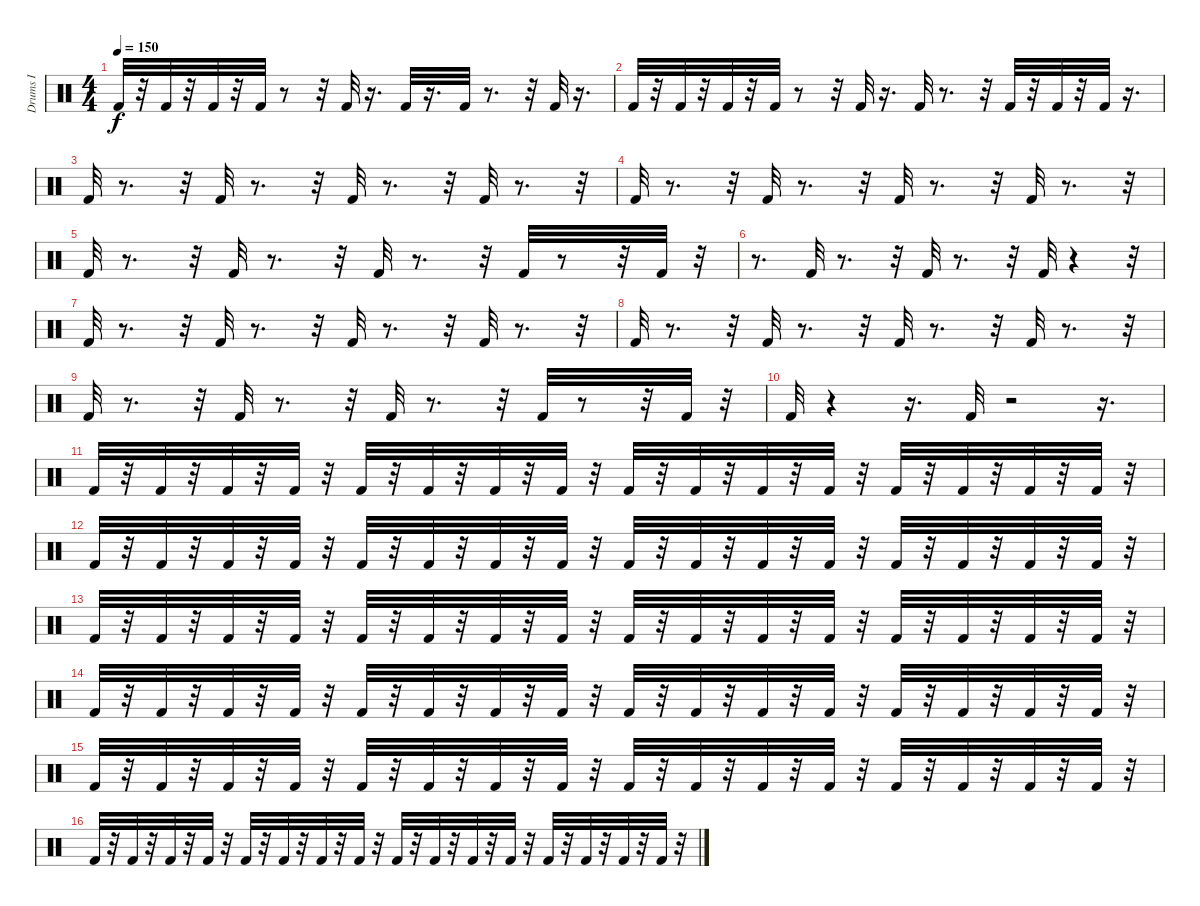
\track ("Drums I" "Drums I") {instrument percussion}
\staff {score}
\articulation defaults
\ts (4 4)
\tempo 150
\clef neutral
\ks c "Kick (hit) 2".32{dy f}
r.32 "Kick (hit) 2".32 r.32 "Kick (hit) 2".32 r.32 "Kick (hit) 2".32 r.8 r.32 "Kick (hit) 2".32 r.16{d} "Kick (hit) 2".32 r.16{d} "Kick (hit) 2".32 r.8{d} r.32 "Kick (hit) 2".32 r.16{d} |
"Kick (hit) 2".32 r.32 "Kick (hit) 2".32 r.32 "Kick (hit) 2".32 r.32 "Kick (hit) 2".32 r.8 r.32 "Kick (hit) 2".32 r.16{d} "Kick (hit) 2".32 r.8{d} r.32 "Kick (hit) 2".32 r.32 "Kick (hit) 2".32 r.32 "Kick (hit) 2".32 r.16{d} |
"Kick (hit) 2".32 r.8{d} r.32 "Kick (hit) 2".32 r.8{d} r.32 "Kick (hit) 2".32 r.8{d} r.32 "Kick (hit) 2".32 r.8{d} r.32 |
"Kick (hit) 2".32 r.8{d} r.32 "Kick (hit) 2".32 r.8{d} r.32 "Kick (hit) 2".32 r.8{d} r.32 "Kick (hit) 2".32 r.8{d} r.32 |
"Kick (hit) 2".32 r.8{d} r.32 "Kick (hit) 2".32 r.8{d} r.32 "Kick (hit) 2".32 r.8{d} r.32 "Kick (hit) 2".32 r.8 r.32 "Kick (hit) 2".32 r.32 |
r.8{d} "Kick (hit) 2".32 r.8{d} r.32 "Kick (hit) 2".32 r.8{d} r.32 "Kick (hit) 2".32 r.4 r.32 |
"Kick (hit) 2".32 r.8{d} r.32 "Kick (hit) 2".32 r.8{d} r.32 "Kick (hit) 2".32 r.8{d} r.32 "Kick (hit) 2".32 r.8{d} r.32 |
"Kick (hit) 2".32 r.8{d} r.32 "Kick (hit) 2".32 r.8{d} r.32 "Kick (hit) 2".32 r.8{d} r.32 "Kick (hit) 2".32 r.8{d} r.32 |
"Kick (hit) 2".32 r.8{d} r.32 "Kick (hit) 2".32 r.8{d} r.32 "Kick (hit) 2".32 r.8{d} r.32 "Kick (hit) 2".32 r.8 r.32 "Kick (hit) 2".32 r.32 |
"Kick (hit) 2".32 r.4 r.16{d} "Kick (hit) 2".32 r.2 r.16{d} |
"Kick (hit) 2".32 r.32 "Kick (hit) 2".32 r.32 "Kick (hit) 2".32 r.32 "Kick (hit) 2".32 r.32 "Kick (hit) 2".32 r.32 "Kick (hit) 2".32 r.32 "Kick (hit) 2".32 r.32 "Kick (hit) 2".32 r.32 "Kick (hit) 2".32 r.32 "Kick (hit) 2".32 r.32 "Kick (hit) 2".32 r.32 "Kick (hit) 2".32 r.32 "Kick (hit) 2".32 r.32 "Kick (hit) 2".32 r.32 "Kick (hit) 2".32 r.32 "Kick (hit) 2".32 r.32 |
"Kick (hit) 2".32 r.32 "Kick (hit) 2".32 r.32 "Kick (hit) 2".32 r.32 "Kick (hit) 2".32 r.32 "Kick (hit) 2".32 r.32 "Kick (hit) 2".32 r.32 "Kick (hit) 2".32 r.32 "Kick (hit) 2".32 r.32 "Kick (hit) 2".32 r.32 "Kick (hit) 2".32 r.32 "Kick (hit) 2".32 r.32 "Kick (hit) 2".32 r.32 "Kick (hit) 2".32 r.32 "Kick (hit) 2".32 r.32 "Kick (hit) 2".32 r.32 "Kick (hit) 2".32 r.32 |
"Kick (hit) 2".32 r.32 "Kick (hit) 2".32 r.32 "Kick (hit) 2".32 r.32 "Kick (hit) 2".32 r.32 "Kick (hit) 2".32 r.32 "Kick (hit) 2".32 r.32 "Kick (hit) 2".32 r.32 "Kick (hit) 2".32 r.32 "Kick (hit) 2".32 r.32 "Kick (hit) 2".32 r.32 "Kick (hit) 2".32 r.32 "Kick (hit) 2".32 r.32 "Kick (hit) 2".32 r.32 "Kick (hit) 2".32 r.32 "Kick (hit) 2".32 r.32 "Kick (hit) 2".32 r.32 |
"Kick (hit) 2".32 r.32 "Kick (hit) 2".32 r.32 "Kick (hit) 2".32 r.32 "Kick (hit) 2".32 r.32 "Kick (hit) 2".32 r.32 "Kick (hit) 2".32 r.32 "Kick (hit) 2".32 r.32 "Kick (hit) 2".32 r.32 "Kick (hit) 2".32 r.32 "Kick (hit) 2".32 r.32 "Kick (hit) 2".32 r.32 "Kick (hit) 2".32 r.32 "Kick (hit) 2".32 r.32 "Kick (hit) 2".32 r.32 "Kick (hit) 2".32 r.32 "Kick (hit) 2".32 r.32 |
"Kick (hit) 2".32 r.32 "Kick (hit) 2".32 r.32 "Kick (hit) 2".32 r.32 "Kick (hit) 2".32 r.32 "Kick (hit) 2".32 r.32 "Kick (hit) 2".32 r.32 "Kick (hit) 2".32 r.32 "Kick (hit) 2".32 r.32 "Kick (hit) 2".32 r.32 "Kick (hit) 2".32 r.32 "Kick (hit) 2".32 r.32 "Kick (hit) 2".32 r.32 "Kick (hit) 2".32 r.32 "Kick (hit) 2".32 r.32 "Kick (hit) 2".32 r.32 "Kick (hit) 2".32 r.32 |
"Kick (hit) 2".32 r.32 "Kick (hit) 2".32 r.32 "Kick (hit) 2".32 r.32 "Kick (hit) 2".32 r.32 "Kick (hit) 2".32 r.32 "Kick (hit) 2".32 r.32 "Kick (hit) 2".32 r.32 "Kick (hit) 2".32 r.32 "Kick (hit) 2".32 r.32 "Kick (hit) 2".32 r.32 "Kick (hit) 2".32 r.32 "Kick (hit) 2".32 r.32 "Kick (hit) 2".32 r.32 "Kick (hit) 2".32 r.32 "Kick (hit) 2".32 r.32 "Kick (hit) 2".32 r.32
